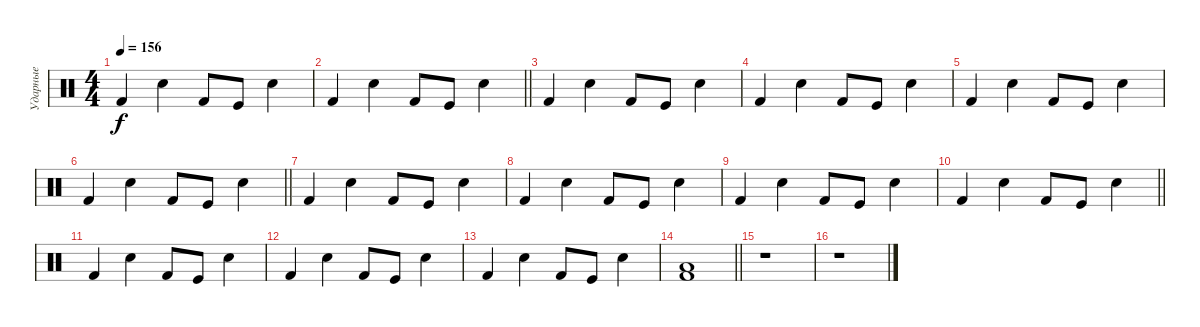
\track ("Ударные" "Ударные") {instrument percussion}
\staff {score}
\articulation defaults
\ts (4 4)
\tempo 156
\clef neutral
\ks c "Kick (hit) 2".4{dy f} "Snare (hit) 2".4 "Kick (hit) 2".8 "Kick (hit)".8 "Snare (hit) 2".4
|
\barLineRight lightlight "Kick (hit) 2".4 "Snare (hit) 2".4 "Kick (hit) 2".8 "Kick (hit)".8 "Snare (hit) 2".4
|
"Kick (hit) 2".4 "Snare (hit) 2".4 "Kick (hit) 2".8 "Kick (hit)".8 "Snare (hit) 2".4 |
"Kick (hit) 2".4 "Snare (hit) 2".4 "Kick (hit) 2".8 "Kick (hit)".8 "Snare (hit) 2".4 |
"Kick (hit) 2".4 "Snare (hit) 2".4 "Kick (hit) 2".8 "Kick (hit)".8 "Snare (hit) 2".4 |
\barLineRight lightlight "Kick (hit) 2".4 "Snare (hit) 2".4 "Kick (hit) 2".8 "Kick (hit)".8 "Snare (hit) 2".4
|
"Kick (hit) 2".4 "Snare (hit) 2".4 "Kick (hit) 2".8 "Kick (hit)".8 "Snare (hit) 2".4 |
"Kick (hit) 2".4 "Snare (hit) 2".4 "Kick (hit) 2".8 "Kick (hit)".8 "Snare (hit) 2".4 |
"Kick (hit) 2".4 "Snare (hit) 2".4 "Kick (hit) 2".8 "Kick (hit)".8 "Snare (hit) 2".4 |
\barLineRight lightlight "Kick (hit) 2".4 "Snare (hit) 2".4 "Kick (hit) 2".8 "Kick (hit)".8 "Snare (hit) 2".4
|
"Kick (hit) 2".4 "Snare (hit) 2".4 "Kick (hit) 2".8 "Kick (hit)".8 "Snare (hit) 2".4 |
"Kick (hit) 2".4 "Snare (hit) 2".4 "Kick (hit) 2".8 "Kick (hit)".8 "Snare (hit) 2".4 |
"Kick (hit) 2".4 "Snare (hit) 2".4 "Kick (hit) 2".8 "Kick (hit)".8 "Snare (hit) 2".4 |
\barLineRight lightlight
("Kick (hit) 2" "Low Tom (hit)").1 |
r.1 |
r.1
